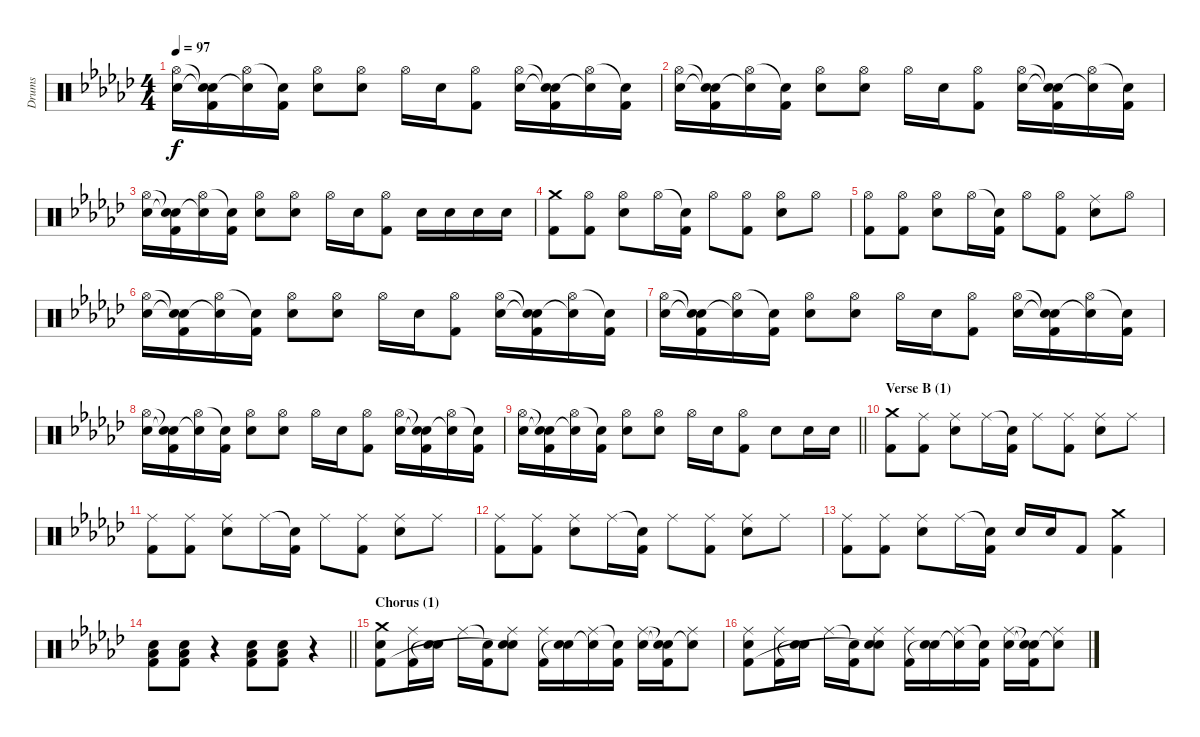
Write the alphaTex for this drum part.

\track ("Drums" "Drums") {instrument percussion}
\staff {score}
\articulation defaults
\ts (4 4)
\tempo 97
\clef neutral
\ks ebminor
("Hi-Hat (open)" "Electric Snare (hit)").16{dy f} ("Snare (hit)"{t} "Snare (hit)"{t} "Kick (hit) 2").16 ("Hi-Hat (open)" "Snare (hit)"{t}).16 ("Snare (hit)"{t} "Kick (hit) 2").16 ("Hi-Hat (open)" "Electric Snare (hit)").8 ("Hi-Hat (open)" "Electric Snare (hit)").8 "Hi-Hat (open)".16 "Electric Snare (hit)".16 ("Hi-Hat (open)" "Kick (hit) 2").8 ("Hi-Hat (open)" "Electric Snare (hit)").16 ("Snare (hit)"{t} "Snare (hit)"{t} "Kick (hit) 2").16 ("Hi-Hat (open)" "Snare (hit)"{t}).16 ("Snare (hit)"{t} "Kick (hit) 2").16 |
("Hi-Hat (open)" "Electric Snare (hit)").16 ("Snare (hit)"{t} "Snare (hit)"{t} "Kick (hit) 2").16 ("Hi-Hat (open)" "Snare (hit)"{t}).16 ("Snare (hit)"{t} "Kick (hit) 2").16 ("Hi-Hat (open)" "Electric Snare (hit)").8 ("Hi-Hat (open)" "Electric Snare (hit)").8 "Hi-Hat (open)".16 "Electric Snare (hit)".16 ("Hi-Hat (open)" "Kick (hit) 2").8 ("Hi-Hat (open)" "Electric Snare (hit)").16 ("Snare (hit)"{t} "Snare (hit)"{t} "Kick (hit) 2").16 ("Hi-Hat (open)" "Snare (hit)"{t}).16 ("Snare (hit)"{t} "Kick (hit) 2").16 |
("Hi-Hat (open)" "Electric Snare (hit)").16 ("Snare (hit)"{t} "Snare (hit)"{t} "Kick (hit) 2").16 ("Hi-Hat (open)" "Snare (hit)"{t}).16 ("Snare (hit)"{t} "Kick (hit) 2").16 ("Hi-Hat (open)" "Electric Snare (hit)").8 ("Hi-Hat (open)" "Electric Snare (hit)").8 "Hi-Hat (open)".16 "Electric Snare (hit)".16 ("Hi-Hat (open)" "Kick (hit) 2").8 "Electric Snare (hit)".16 "Electric Snare (hit)".16 "Electric Snare (hit)".16 "Electric Snare (hit)".16 |
("Crash medium (hit)" "Kick (hit) 2").8 ("Hi-Hat (open)" "Kick (hit) 2").8 ("Hi-Hat (open)" "Electric Snare (hit)").8 "Hi-Hat (open)".16 ("Snare (hit)"{t} "Kick (hit) 2").16 "Hi-Hat (open)".8 ("Hi-Hat (open)" "Kick (hit) 2").8 ("Hi-Hat (open)" "Electric Snare (hit)").8 "Hi-Hat (open)".8 |
("Hi-Hat (open)" "Kick (hit) 2").8 ("Hi-Hat (open)" "Kick (hit) 2").8 ("Hi-Hat (open)" "Electric Snare (hit)").8 "Hi-Hat (open)".16 ("Snare (hit)"{t} "Kick (hit) 2").16 "Hi-Hat (open)".8 ("Hi-Hat (open)" "Kick (hit) 2").8 ("Ride (middle)" "Electric Snare (hit)").8 "Hi-Hat (open)".8 |
("Hi-Hat (open)" "Electric Snare (hit)").16 ("Snare (hit)"{t} "Snare (hit)"{t} "Kick (hit) 2").16 ("Hi-Hat (open)" "Snare (hit)"{t}).16 ("Snare (hit)"{t} "Kick (hit) 2").16 ("Hi-Hat (open)" "Electric Snare (hit)").8 ("Hi-Hat (open)" "Electric Snare (hit)").8 "Hi-Hat (open)".16 "Electric Snare (hit)".16 ("Hi-Hat (open)" "Kick (hit) 2").8 ("Hi-Hat (open)" "Electric Snare (hit)").16 ("Snare (hit)"{t} "Snare (hit)"{t} "Kick (hit) 2").16 ("Hi-Hat (open)" "Snare (hit)"{t}).16 ("Snare (hit)"{t} "Kick (hit) 2").16 |
("Hi-Hat (open)" "Electric Snare (hit)").16 ("Snare (hit)"{t} "Snare (hit)"{t} "Kick (hit) 2").16 ("Hi-Hat (open)" "Snare (hit)"{t}).16 ("Snare (hit)"{t} "Kick (hit) 2").16 ("Hi-Hat (open)" "Electric Snare (hit)").8 ("Hi-Hat (open)" "Electric Snare (hit)").8 "Hi-Hat (open)".16 "Electric Snare (hit)".16 ("Hi-Hat (open)" "Kick (hit) 2").8 ("Hi-Hat (open)" "Electric Snare (hit)").16 ("Snare (hit)"{t} "Snare (hit)"{t} "Kick (hit) 2").16 ("Hi-Hat (open)" "Snare (hit)"{t}).16 ("Snare (hit)"{t} "Kick (hit) 2").16 |
("Hi-Hat (open)" "Electric Snare (hit)").16 ("Snare (hit)"{t} "Snare (hit)"{t} "Kick (hit) 2").16 ("Hi-Hat (open)" "Snare (hit)"{t}).16 ("Snare (hit)"{t} "Kick (hit) 2").16 ("Hi-Hat (open)" "Electric Snare (hit)").8 ("Hi-Hat (open)" "Electric Snare (hit)").8 "Hi-Hat (open)".16 "Electric Snare (hit)".16 ("Hi-Hat (open)" "Kick (hit) 2").8 ("Hi-Hat (open)" "Electric Snare (hit)").16 ("Snare (hit)"{t} "Snare (hit)"{t} "Kick (hit) 2").16 ("Hi-Hat (open)" "Snare (hit)"{t}).16 ("Snare (hit)"{t} "Kick (hit) 2").16 |
\barLineRight lightlight
("Hi-Hat (open)" "Electric Snare (hit)").16 ("Snare (hit)"{t} "Snare (hit)"{t} "Kick (hit) 2").16 ("Hi-Hat (open)" "Snare (hit)"{t}).16 ("Snare (hit)"{t} "Kick (hit) 2").16 ("Hi-Hat (open)" "Electric Snare (hit)").8 ("Hi-Hat (open)" "Electric Snare (hit)").8 "Hi-Hat (open)".16 "Electric Snare (hit)".16 ("Hi-Hat (open)" "Kick (hit) 2").8 "Electric Snare (hit)".8 "Electric Snare (hit)".16 "Electric Snare (hit)".16 |
\section ("" "Verse B (1)")
("Crash medium (hit)" "Kick (hit) 2").8 ("Ride (middle)" "Kick (hit) 2").8 ("Ride (middle)" "Electric Snare (hit)").8 "Ride (middle)".16 ("Snare (hit)"{t} "Kick (hit) 2").16 "Ride (middle)".8 ("Ride (middle)" "Kick (hit) 2").8 ("Ride (middle)" "Electric Snare (hit)").8 "Ride (middle)".8 |
("Ride (middle)" "Kick (hit) 2").8 ("Ride (middle)" "Kick (hit) 2").8 ("Ride (middle)" "Electric Snare (hit)").8 "Ride (middle)".16 ("Snare (hit)"{t} "Kick (hit) 2").16 "Ride (middle)".8 ("Ride (middle)" "Kick (hit) 2").8 ("Ride (middle)" "Electric Snare (hit)").8 "Ride (middle)".8 |
("Ride (middle)" "Kick (hit) 2").8 ("Ride (middle)" "Kick (hit) 2").8 ("Ride (middle)" "Electric Snare (hit)").8 "Ride (middle)".16 ("Snare (hit)"{t} "Kick (hit) 2").16 "Ride (middle)".8 ("Ride (middle)" "Kick (hit) 2").8 ("Ride (middle)" "Electric Snare (hit)").8 "Ride (middle)".8 |
("Ride (middle)" "Kick (hit) 2").8 ("Ride (middle)" "Kick (hit) 2").8 ("Ride (middle)" "Electric Snare (hit)").8 "Ride (middle)".16 ("Snare (hit)"{t} "Kick (hit) 2").16 "Electric Snare (hit)".16 "Electric Snare (hit)".16 "Kick (hit) 2".8 ("Crash medium (hit)" "Kick (hit) 2").4 |
\barLineRight lightlight
("Electric Snare (hit)" "Low Floor Tom (hit)" "Kick (hit) 2").8 ("Electric Snare (hit)" "Low Floor Tom (hit)" "Kick (hit) 2").8 r.4 ("Electric Snare (hit)" "Low Floor Tom (hit)" "Kick (hit) 2").8 ("Electric Snare (hit)" "Low Floor Tom (hit)" "Kick (hit) 2").8 r.4 |
\section ("" "Chorus (1)")
("Crash medium (hit)" "Electric Snare (hit)" "Kick (hit) 2").8 ("Ride (middle)" "Kick (hit) 2").16 ("Electric Snare (hit)" "Snare (hit)"{t}).16 "Ride (middle)".16 ("Snare (hit)"{t} "Kick (hit) 2").16 ("Ride (middle)" "Electric Snare (hit)" "Snare (hit)"{t}).8 ("Ride (middle)" "Kick (hit) 2").16 ("Electric Snare (hit)" "Snare (hit)"{t}).16 ("Ride (middle)" "Snare (hit)"{t}).16 ("Snare (hit)"{t} "Kick (hit) 2").16 ("Ride (middle)" "Electric Snare (hit)").16 ("Snare (hit)"{t} "Snare (hit)"{t} "Kick (hit) 2").16 ("Ride (middle)" "Snare (hit)"{t}).8 |
("Ride (middle)" "Electric Snare (hit)" "Kick (hit) 2").8 ("Ride (middle)" "Kick (hit) 2").16 ("Electric Snare (hit)" "Snare (hit)"{t}).16 "Ride (middle)".16 ("Snare (hit)"{t} "Kick (hit) 2").16 ("Ride (middle)" "Electric Snare (hit)" "Snare (hit)"{t}).8 ("Ride (middle)" "Kick (hit) 2").16 ("Electric Snare (hit)" "Snare (hit)"{t}).16 ("Ride (middle)" "Snare (hit)"{t}).16 ("Snare (hit)"{t} "Kick (hit) 2").16 ("Ride (middle)" "Electric Snare (hit)").16 ("Snare (hit)"{t} "Snare (hit)"{t} "Kick (hit) 2").16 ("Ride (middle)" "Snare (hit)"{t}).8
